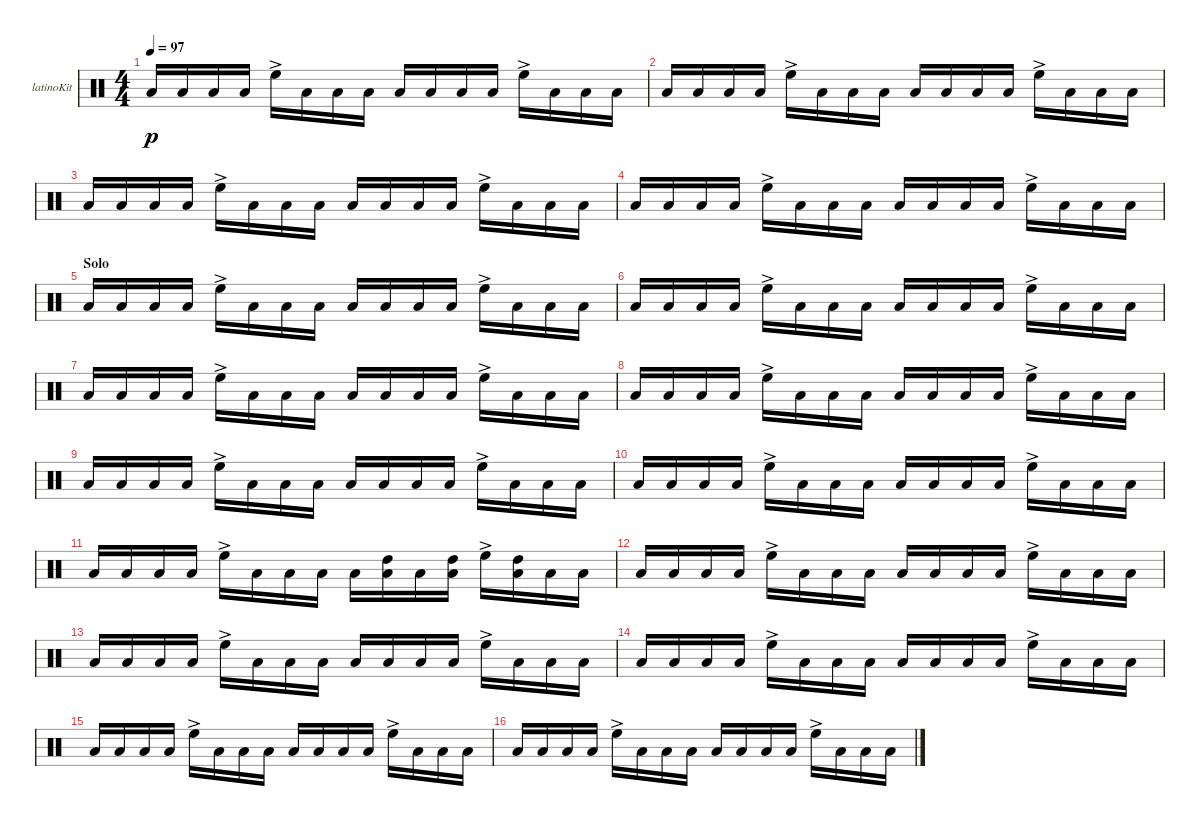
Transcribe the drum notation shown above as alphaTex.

\bracketExtendMode groupsimilarinstruments
\firstSystemTrackNameOrientation horizontal
\otherSystemsTrackNameOrientation horizontal
\track ("Kit-Latino" "latinoKit") {instrument percussion}
\staff {score}
\articulation defaults
\ts (4 4)
\tempo 97
\clef neutral
\ks c "Low Tom (hit)".16{dy p} "Low Tom (hit)".16 "Low Tom (hit)".16 "Low Tom (hit)".16 "High Floor Tom (hit)"{ac}.16 "Low Tom (hit)".16 "Low Tom (hit)".16 "Low Tom (hit)".16 "Low Tom (hit)".16 "Low Tom (hit)".16 "Low Tom (hit)".16 "Low Tom (hit)".16 "High Floor Tom (hit)"{ac}.16 "Low Tom (hit)".16 "Low Tom (hit)".16 "Low Tom (hit)".16
|
"Low Tom (hit)".16 "Low Tom (hit)".16 "Low Tom (hit)".16 "Low Tom (hit)".16 "High Floor Tom (hit)"{ac}.16 "Low Tom (hit)".16 "Low Tom (hit)".16 "Low Tom (hit)".16 "Low Tom (hit)".16 "Low Tom (hit)".16 "Low Tom (hit)".16 "Low Tom (hit)".16 "High Floor Tom (hit)"{ac}.16 "Low Tom (hit)".16 "Low Tom (hit)".16 "Low Tom (hit)".16 |
"Low Tom (hit)".16 "Low Tom (hit)".16 "Low Tom (hit)".16 "Low Tom (hit)".16 "High Floor Tom (hit)"{ac}.16 "Low Tom (hit)".16 "Low Tom (hit)".16 "Low Tom (hit)".16 "Low Tom (hit)".16 "Low Tom (hit)".16 "Low Tom (hit)".16 "Low Tom (hit)".16 "High Floor Tom (hit)"{ac}.16 "Low Tom (hit)".16 "Low Tom (hit)".16 "Low Tom (hit)".16 |
"Low Tom (hit)".16 "Low Tom (hit)".16 "Low Tom (hit)".16 "Low Tom (hit)".16 "High Floor Tom (hit)"{ac}.16 "Low Tom (hit)".16 "Low Tom (hit)".16 "Low Tom (hit)".16 "Low Tom (hit)".16 "Low Tom (hit)".16 "Low Tom (hit)".16 "Low Tom (hit)".16 "High Floor Tom (hit)"{ac}.16 "Low Tom (hit)".16 "Low Tom (hit)".16 "Low Tom (hit)".16 |
\section ("" "Solo")
"Low Tom (hit)".16 "Low Tom (hit)".16 "Low Tom (hit)".16 "Low Tom (hit)".16 "High Floor Tom (hit)"{ac}.16 "Low Tom (hit)".16 "Low Tom (hit)".16 "Low Tom (hit)".16 "Low Tom (hit)".16 "Low Tom (hit)".16 "Low Tom (hit)".16 "Low Tom (hit)".16 "High Floor Tom (hit)"{ac}.16 "Low Tom (hit)".16 "Low Tom (hit)".16 "Low Tom (hit)".16 |
"Low Tom (hit)".16 "Low Tom (hit)".16 "Low Tom (hit)".16 "Low Tom (hit)".16 "High Floor Tom (hit)"{ac}.16 "Low Tom (hit)".16 "Low Tom (hit)".16 "Low Tom (hit)".16 "Low Tom (hit)".16 "Low Tom (hit)".16 "Low Tom (hit)".16 "Low Tom (hit)".16 "High Floor Tom (hit)"{ac}.16 "Low Tom (hit)".16 "Low Tom (hit)".16 "Low Tom (hit)".16 |
"Low Tom (hit)".16 "Low Tom (hit)".16 "Low Tom (hit)".16 "Low Tom (hit)".16 "High Floor Tom (hit)"{ac}.16 "Low Tom (hit)".16 "Low Tom (hit)".16 "Low Tom (hit)".16 "Low Tom (hit)".16 "Low Tom (hit)".16 "Low Tom (hit)".16 "Low Tom (hit)".16 "High Floor Tom (hit)"{ac}.16 "Low Tom (hit)".16 "Low Tom (hit)".16 "Low Tom (hit)".16 |
"Low Tom (hit)".16 "Low Tom (hit)".16 "Low Tom (hit)".16 "Low Tom (hit)".16 "High Floor Tom (hit)"{ac}.16 "Low Tom (hit)".16 "Low Tom (hit)".16 "Low Tom (hit)".16 "Low Tom (hit)".16 "Low Tom (hit)".16 "Low Tom (hit)".16 "Low Tom (hit)".16 "High Floor Tom (hit)"{ac}.16 "Low Tom (hit)".16 "Low Tom (hit)".16 "Low Tom (hit)".16 |
"Low Tom (hit)".16 "Low Tom (hit)".16 "Low Tom (hit)".16 "Low Tom (hit)".16 "High Floor Tom (hit)"{ac}.16 "Low Tom (hit)".16 "Low Tom (hit)".16 "Low Tom (hit)".16 "Low Tom (hit)".16 "Low Tom (hit)".16 "Low Tom (hit)".16 "Low Tom (hit)".16 "High Floor Tom (hit)"{ac}.16 "Low Tom (hit)".16 "Low Tom (hit)".16 "Low Tom (hit)".16 |
"Low Tom (hit)".16 "Low Tom (hit)".16 "Low Tom (hit)".16 "Low Tom (hit)".16 "High Floor Tom (hit)"{ac}.16 "Low Tom (hit)".16 "Low Tom (hit)".16 "Low Tom (hit)".16 "Low Tom (hit)".16 "Low Tom (hit)".16 "Low Tom (hit)".16 "Low Tom (hit)".16 "High Floor Tom (hit)"{ac}.16 "Low Tom (hit)".16 "Low Tom (hit)".16 "Low Tom (hit)".16 |
\scale
0.333333 "Low Tom (hit)".16 "Low Tom (hit)".16 "Low Tom (hit)".16 "Low Tom (hit)".16 "High Floor Tom (hit)"{ac}.16 "Low Tom (hit)".16 "Low Tom (hit)".16 "Low Tom (hit)".16 "Low Tom (hit)".16 ("Low Tom (hit)" "High Tom (hit)").16 "Low Tom (hit)".16 ("Low Tom (hit)" "High Tom (hit)").16 "High Floor Tom (hit)"{ac}.16 ("Low Tom (hit)" "High Tom (hit)").16 "Low Tom (hit)".16 "Low Tom (hit)".16 |
"Low Tom (hit)".16 "Low Tom (hit)".16 "Low Tom (hit)".16 "Low Tom (hit)".16 "High Floor Tom (hit)"{ac}.16 "Low Tom (hit)".16 "Low Tom (hit)".16 "Low Tom (hit)".16 "Low Tom (hit)".16 "Low Tom (hit)".16 "Low Tom (hit)".16 "Low Tom (hit)".16 "High Floor Tom (hit)"{ac}.16 "Low Tom (hit)".16 "Low Tom (hit)".16 "Low Tom (hit)".16 |
"Low Tom (hit)".16 "Low Tom (hit)".16 "Low Tom (hit)".16 "Low Tom (hit)".16 "High Floor Tom (hit)"{ac}.16 "Low Tom (hit)".16 "Low Tom (hit)".16 "Low Tom (hit)".16 "Low Tom (hit)".16 "Low Tom (hit)".16 "Low Tom (hit)".16 "Low Tom (hit)".16 "High Floor Tom (hit)"{ac}.16 "Low Tom (hit)".16 "Low Tom (hit)".16 "Low Tom (hit)".16 |
"Low Tom (hit)".16 "Low Tom (hit)".16 "Low Tom (hit)".16 "Low Tom (hit)".16 "High Floor Tom (hit)"{ac}.16 "Low Tom (hit)".16 "Low Tom (hit)".16 "Low Tom (hit)".16 "Low Tom (hit)".16 "Low Tom (hit)".16 "Low Tom (hit)".16 "Low Tom (hit)".16 "High Floor Tom (hit)"{ac}.16 "Low Tom (hit)".16 "Low Tom (hit)".16 "Low Tom (hit)".16 |
\scale
0.333333 "Low Tom (hit)".16 "Low Tom (hit)".16 "Low Tom (hit)".16 "Low Tom (hit)".16 "High Floor Tom (hit)"{ac}.16 "Low Tom (hit)".16 "Low Tom (hit)".16 "Low Tom (hit)".16 "Low Tom (hit)".16 "Low Tom (hit)".16 "Low Tom (hit)".16 "Low Tom (hit)".16 "High Floor Tom (hit)"{ac}.16 "Low Tom (hit)".16 "Low Tom (hit)".16 "Low Tom (hit)".16 |
"Low Tom (hit)".16 "Low Tom (hit)".16 "Low Tom (hit)".16 "Low Tom (hit)".16 "High Floor Tom (hit)"{ac}.16 "Low Tom (hit)".16 "Low Tom (hit)".16 "Low Tom (hit)".16 "Low Tom (hit)".16 "Low Tom (hit)".16 "Low Tom (hit)".16 "Low Tom (hit)".16 "High Floor Tom (hit)"{ac}.16 "Low Tom (hit)".16 "Low Tom (hit)".16 "Low Tom (hit)".16
